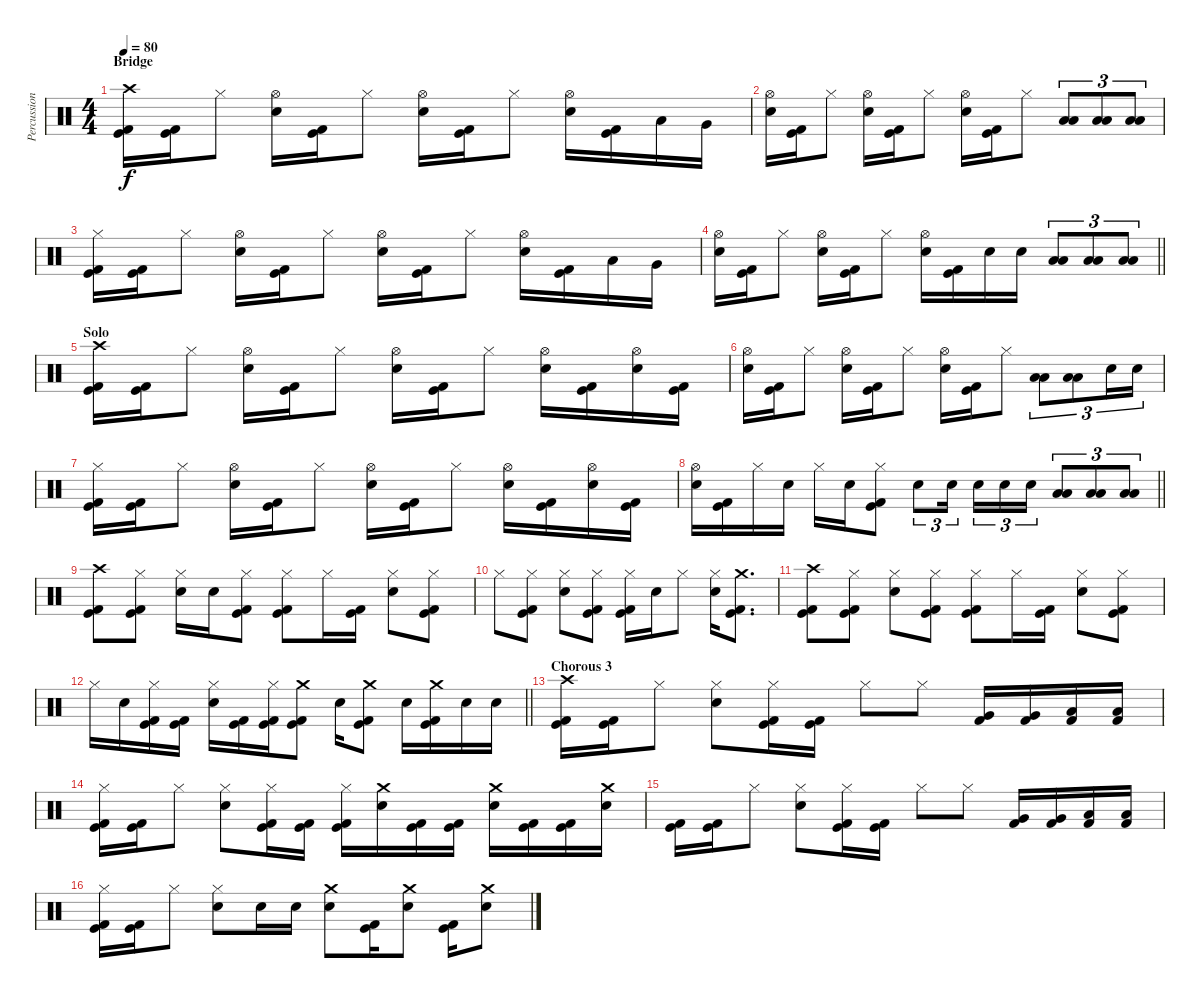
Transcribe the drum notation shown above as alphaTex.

\track ("Percussion" "Percussion") {instrument percussion}
\staff {score}
\articulation defaults
\ts (4 4)
\section ("" "Bridge")
\tempo 80
\clef neutral
\ks c
("Crash high (hit)" "Kick (hit)" "Kick (hit) 2").16{dy f} ("Kick (hit)" "Kick (hit) 2").16 "Hi-Hat (closed)".8 ("Hi-Hat (open)" "Electric Snare (hit)").16 ("Kick (hit)" "Kick (hit) 2").16 "Hi-Hat (closed)".8 ("Hi-Hat (open)" "Electric Snare (hit)").16 ("Kick (hit)" "Kick (hit) 2").16 "Hi-Hat (closed)".8 ("Hi-Hat (open)" "Electric Snare (hit)").16 ("Kick (hit)" "Kick (hit) 2").16 "Low Tom (hit)".16 "Very Low Tom (hit)".16 |
("Hi-Hat (open)" "Electric Snare (hit)").16 ("Kick (hit)" "Kick (hit) 2").16 "Hi-Hat (closed)".8 ("Hi-Hat (open)" "Electric Snare (hit)").16 ("Kick (hit)" "Kick (hit) 2").16 "Hi-Hat (closed)".8 ("Hi-Hat (open)" "Electric Snare (hit)").16 ("Kick (hit)" "Kick (hit) 2").16 "Hi-Hat (closed)".8 ("Low Tom (hit)" "Low Floor Tom (hit)").8{tu (3 2)} ("Low Tom (hit)" "Low Floor Tom (hit)").8{tu (3 2)} ("Low Tom (hit)" "Low Floor Tom (hit)").8{tu (3 2)} |
("Hi-Hat (closed)" "Kick (hit)" "Kick (hit) 2").16 ("Kick (hit)" "Kick (hit) 2").16 "Hi-Hat (closed)".8 ("Hi-Hat (open)" "Electric Snare (hit)").16 ("Kick (hit)" "Kick (hit) 2").16 "Hi-Hat (closed)".8 ("Hi-Hat (open)" "Electric Snare (hit)").16 ("Kick (hit)" "Kick (hit) 2").16 "Hi-Hat (closed)".8 ("Hi-Hat (open)" "Electric Snare (hit)").16 ("Kick (hit)" "Kick (hit) 2").16 "Low Tom (hit)".16 "Very Low Tom (hit)".16 |
\barLineRight lightlight
("Hi-Hat (open)" "Electric Snare (hit)").16 ("Kick (hit)" "Kick (hit) 2").16 "Hi-Hat (closed)".8 ("Hi-Hat (open)" "Electric Snare (hit)").16 ("Kick (hit)" "Kick (hit) 2").16 "Hi-Hat (closed)".8 ("Hi-Hat (open)" "Electric Snare (hit)").16 ("Kick (hit)" "Kick (hit) 2").16 "Electric Snare (hit)".16 "Electric Snare (hit)".16 ("Low Tom (hit)" "Low Floor Tom (hit)").8{tu (3 2)} ("Low Tom (hit)" "Low Floor Tom (hit)").8{tu (3 2)} ("Low Tom (hit)" "Low Floor Tom (hit)").8{tu (3 2)} |
\section ("" "Solo")
("Crash high (hit)" "Kick (hit)" "Kick (hit) 2").16 ("Kick (hit)" "Kick (hit) 2").16 "Hi-Hat (closed)".8 ("Hi-Hat (open)" "Electric Snare (hit)").16 ("Kick (hit)" "Kick (hit) 2").16 "Hi-Hat (closed)".8 ("Hi-Hat (open)" "Electric Snare (hit)").16 ("Kick (hit)" "Kick (hit) 2").16 "Hi-Hat (closed)".8 ("Hi-Hat (open)" "Electric Snare (hit)").16 ("Kick (hit)" "Kick (hit) 2").16 ("Hi-Hat (open)" "Electric Snare (hit)").16 ("Kick (hit)" "Kick (hit) 2").16 |
("Hi-Hat (open)" "Electric Snare (hit)").16 ("Kick (hit)" "Kick (hit) 2").16 "Hi-Hat (closed)".8 ("Hi-Hat (open)" "Electric Snare (hit)").16 ("Kick (hit)" "Kick (hit) 2").16 "Hi-Hat (closed)".8 ("Hi-Hat (open)" "Electric Snare (hit)").16 ("Kick (hit)" "Kick (hit) 2").16 "Hi-Hat (closed)".8 ("Low Tom (hit)" "Low Floor Tom (hit)").8{tu (3 2)} ("Low Tom (hit)" "Low Floor Tom (hit)").8{tu (3 2)} "Electric Snare (hit)".16{tu (3 2)} "Electric Snare (hit)".16{tu (3 2)} |
("Hi-Hat (closed)" "Kick (hit)" "Kick (hit) 2").16 ("Kick (hit)" "Kick (hit) 2").16 "Hi-Hat (closed)".8 ("Hi-Hat (open)" "Electric Snare (hit)").16 ("Kick (hit)" "Kick (hit) 2").16 "Hi-Hat (closed)".8 ("Hi-Hat (open)" "Electric Snare (hit)").16 ("Kick (hit)" "Kick (hit) 2").16 "Hi-Hat (closed)".8 ("Hi-Hat (open)" "Electric Snare (hit)").16 ("Kick (hit)" "Kick (hit) 2").16 ("Hi-Hat (open)" "Electric Snare (hit)").16 ("Kick (hit)" "Kick (hit) 2").16 |
\barLineRight lightlight
("Hi-Hat (open)" "Electric Snare (hit)").16 ("Kick (hit)" "Kick (hit) 2").16 "Hi-Hat (closed)".16 "Electric Snare (hit)".16 "Hi-Hat (closed)".16 "Electric Snare (hit)".16 ("Hi-Hat (closed)" "Kick (hit)" "Kick (hit) 2").8 "Electric Snare (hit)".8{tu (3 2)} "Electric Snare (hit)".16{tu (3 2) beam splitsecondary} "Electric Snare (hit)".16{tu (3 2)} "Electric Snare (hit)".16{tu (3 2)} "Electric Snare (hit)".16{tu (3 2)} ("Low Tom (hit)" "Low Floor Tom (hit)").8{tu (3 2)} ("Low Tom (hit)" "Low Floor Tom (hit)").8{tu (3 2)} ("Low Tom (hit)" "Low Floor Tom (hit)").8{tu (3 2)} |
\section ("" "")
("Crash high (hit)" "Kick (hit)" "Kick (hit) 2").8 ("Hi-Hat (closed)" "Kick (hit)" "Kick (hit) 2").8 ("Hi-Hat (closed)" "Electric Snare (hit)").16 "Electric Snare (hit)".16 ("Hi-Hat (closed)" "Kick (hit)" "Kick (hit) 2").8 ("Hi-Hat (closed)" "Kick (hit)" "Kick (hit) 2").8 "Hi-Hat (closed)".16 ("Kick (hit)" "Kick (hit) 2").16 ("Hi-Hat (closed)" "Electric Snare (hit)").8 ("Hi-Hat (closed)" "Kick (hit)" "Kick (hit) 2").8 |
"Hi-Hat (closed)".8 ("Hi-Hat (closed)" "Kick (hit)" "Kick (hit) 2").8 ("Hi-Hat (closed)" "Electric Snare (hit)").8 ("Hi-Hat (closed)" "Kick (hit)" "Kick (hit) 2").8 ("Hi-Hat (closed)" "Kick (hit)" "Kick (hit) 2").16 "Electric Snare (hit)".16 "Hi-Hat (closed)".8 ("Hi-Hat (closed)" "Electric Snare (hit)").16 ("Crash medium (hit)" "Kick (hit)" "Kick (hit) 2").8{d} |
("Crash high (hit)" "Kick (hit)" "Kick (hit) 2").8 ("Hi-Hat (closed)" "Kick (hit)" "Kick (hit) 2").8 ("Hi-Hat (closed)" "Electric Snare (hit)").8 ("Hi-Hat (closed)" "Kick (hit)" "Kick (hit) 2").8 ("Hi-Hat (closed)" "Kick (hit)" "Kick (hit) 2").8 "Hi-Hat (closed)".16 ("Kick (hit)" "Kick (hit) 2").16 ("Hi-Hat (closed)" "Electric Snare (hit)").8 ("Hi-Hat (closed)" "Kick (hit)" "Kick (hit) 2").8 |
\barLineRight lightlight "Hi-Hat (closed)".16 "Electric Snare (hit)".16
("Hi-Hat (closed)" "Kick (hit)" "Kick (hit) 2").16 ("Kick (hit)" "Kick (hit) 2").16 ("Hi-Hat (closed)" "Electric Snare (hit)").16 ("Kick (hit)" "Kick (hit) 2").16 ("Hi-Hat (closed)" "Kick (hit)" "Kick (hit) 2").16 ("Crash medium (hit)" "Kick (hit)" "Kick (hit) 2").8 "Electric Snare (hit)".16 ("Crash medium (hit)" "Kick (hit)" "Kick (hit) 2").8 "Electric Snare (hit)".16 ("Crash medium (hit)" "Kick (hit)" "Kick (hit) 2").16 "Electric Snare (hit)".16 "Electric Snare (hit)".16 |
\section ("" "Chorous 3")
("Crash high (hit)" "Kick (hit)" "Kick (hit) 2").16 ("Kick (hit)" "Kick (hit) 2").16 "Hi-Hat (closed)".8 ("Hi-Hat (closed)" "Electric Snare (hit)").8 ("Hi-Hat (closed)" "Kick (hit)" "Kick (hit) 2").16 ("Kick (hit)" "Kick (hit) 2").16 "Hi-Hat (closed)".8 "Hi-Hat (closed)".8 ("Very Low Tom (hit)" "Kick (hit) 2").16 ("Very Low Tom (hit)" "Kick (hit) 2").16 ("Low Floor Tom (hit)" "Kick (hit) 2").16 ("Low Floor Tom (hit)" "Kick (hit) 2").16 |
("Hi-Hat (closed)" "Kick (hit)" "Kick (hit) 2").16 ("Kick (hit)" "Kick (hit) 2").16 "Hi-Hat (closed)".8 ("Hi-Hat (closed)" "Electric Snare (hit)").8 ("Hi-Hat (closed)" "Kick (hit)" "Kick (hit) 2").16 ("Kick (hit)" "Kick (hit) 2").16 ("Hi-Hat (closed)" "Kick (hit)" "Kick (hit) 2").16 ("Crash medium (hit)" "Electric Snare (hit)").16 ("Kick (hit)" "Kick (hit) 2").16 ("Kick (hit)" "Kick (hit) 2").16 ("Crash medium (hit)" "Electric Snare (hit)").16 ("Kick (hit)" "Kick (hit) 2").16 ("Kick (hit)" "Kick (hit) 2").16 ("Crash medium (hit)" "Electric Snare (hit)").16 |
("Kick (hit)" "Kick (hit) 2").16 ("Kick (hit)" "Kick (hit) 2").16 "Hi-Hat (closed)".8 ("Hi-Hat (closed)" "Electric Snare (hit)").8 ("Hi-Hat (closed)" "Kick (hit)" "Kick (hit) 2").16 ("Kick (hit)" "Kick (hit) 2").16 "Hi-Hat (closed)".8 "Hi-Hat (closed)".8 ("Very Low Tom (hit)" "Kick (hit) 2").16 ("Very Low Tom (hit)" "Kick (hit) 2").16 ("Low Floor Tom (hit)" "Kick (hit) 2").16 ("Low Floor Tom (hit)" "Kick (hit) 2").16 |
("Hi-Hat (closed)" "Kick (hit)" "Kick (hit) 2").16 ("Kick (hit)" "Kick (hit) 2").16 "Hi-Hat (closed)".8 ("Hi-Hat (closed)" "Electric Snare (hit)").8 "Electric Snare (hit)".16 "Electric Snare (hit)".16 ("Crash medium (hit)" "Electric Snare (hit)").8 ("Kick (hit)" "Kick (hit) 2").16 ("Crash medium (hit)" "Electric Snare (hit)").8 ("Kick (hit)" "Kick (hit) 2").16 ("Crash medium (hit)" "Electric Snare (hit)").8
